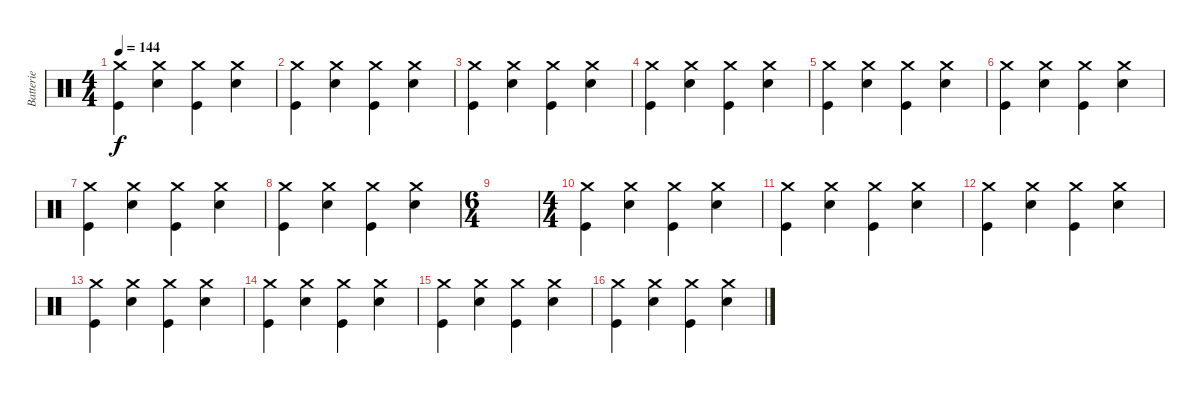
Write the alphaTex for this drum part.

\track ("Batterie" "Batterie") {instrument percussion}
\staff {score}
\articulation defaults
\ts (4 4)
\tempo 144
\clef neutral
\ks c
("Crash medium (hit)" "Kick (hit)").4{dy f} ("Crash medium (hit)" "Snare (hit) 2").4 ("Crash medium (hit)" "Kick (hit)").4 ("Crash medium (hit)" "Snare (hit) 2").4 |
("Crash medium (hit)" "Kick (hit)").4 ("Crash medium (hit)" "Snare (hit) 2").4 ("Crash medium (hit)" "Kick (hit)").4 ("Crash medium (hit)" "Snare (hit) 2").4 |
("Crash medium (hit)" "Kick (hit)").4 ("Crash medium (hit)" "Snare (hit) 2").4 ("Crash medium (hit)" "Kick (hit)").4 ("Crash medium (hit)" "Snare (hit) 2").4 |
("Crash medium (hit)" "Kick (hit)").4 ("Crash medium (hit)" "Snare (hit) 2").4 ("Crash medium (hit)" "Kick (hit)").4 ("Crash medium (hit)" "Snare (hit) 2").4 |
("Crash medium (hit)" "Kick (hit)").4 ("Crash medium (hit)" "Snare (hit) 2").4 ("Crash medium (hit)" "Kick (hit)").4 ("Crash medium (hit)" "Snare (hit) 2").4 |
("Crash medium (hit)" "Kick (hit)").4 ("Crash medium (hit)" "Snare (hit) 2").4 ("Crash medium (hit)" "Kick (hit)").4 ("Crash medium (hit)" "Snare (hit) 2").4 |
("Crash medium (hit)" "Kick (hit)").4 ("Crash medium (hit)" "Snare (hit) 2").4 ("Crash medium (hit)" "Kick (hit)").4 ("Crash medium (hit)" "Snare (hit) 2").4 |
("Crash medium (hit)" "Kick (hit)").4 ("Crash medium (hit)" "Snare (hit) 2").4 ("Crash medium (hit)" "Kick (hit)").4 ("Crash medium (hit)" "Snare (hit) 2").4 |
\ts (6 4)
|
\ts (4 4)
("Crash medium (hit)" "Kick (hit)").4 ("Crash medium (hit)" "Snare (hit) 2").4 ("Crash medium (hit)" "Kick (hit)").4 ("Crash medium (hit)" "Snare (hit) 2").4 |
("Crash medium (hit)" "Kick (hit)").4 ("Crash medium (hit)" "Snare (hit) 2").4 ("Crash medium (hit)" "Kick (hit)").4 ("Crash medium (hit)" "Snare (hit) 2").4 |
("Crash medium (hit)" "Kick (hit)").4 ("Crash medium (hit)" "Snare (hit) 2").4 ("Crash medium (hit)" "Kick (hit)").4 ("Crash medium (hit)" "Snare (hit) 2").4 |
("Crash medium (hit)" "Kick (hit)").4 ("Crash medium (hit)" "Snare (hit) 2").4 ("Crash medium (hit)" "Kick (hit)").4 ("Crash medium (hit)" "Snare (hit) 2").4 |
("Crash medium (hit)" "Kick (hit)").4 ("Crash medium (hit)" "Snare (hit) 2").4 ("Crash medium (hit)" "Kick (hit)").4 ("Crash medium (hit)" "Snare (hit) 2").4 |
("Crash medium (hit)" "Kick (hit)").4 ("Crash medium (hit)" "Snare (hit) 2").4 ("Crash medium (hit)" "Kick (hit)").4 ("Crash medium (hit)" "Snare (hit) 2").4 |
("Crash medium (hit)" "Kick (hit)").4 ("Crash medium (hit)" "Snare (hit) 2").4 ("Crash medium (hit)" "Kick (hit)").4 ("Crash medium (hit)" "Snare (hit) 2").4
